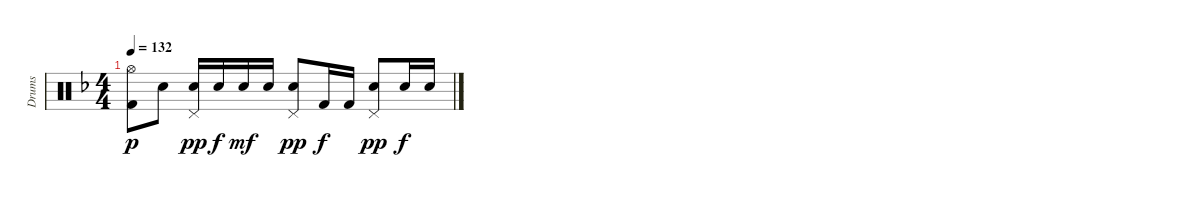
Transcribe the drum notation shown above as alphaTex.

\track ("Drums" "Drums") {instrument percussion}
\staff {score}
\articulation defaults
\ts (4 4)
\tempo 132
\clef neutral
\ks f
("Hi-Hat (open)" "Kick (hit) 2").8{dy p} "Electric Snare (hit)".8 ("Electric Snare (hit)" "Pedal Hi-Hat (hit)").16{dy pp} "Electric Snare (hit)".16{dy f} "Electric Snare (hit)".16{dy mf} "Electric Snare (hit)".16 ("Electric Snare (hit)" "Pedal Hi-Hat (hit)").8{dy pp} "Kick (hit) 2".16{dy f} "Kick (hit) 2".16 ("Electric Snare (hit)" "Pedal Hi-Hat (hit)").8{dy pp} "Electric Snare (hit)".16{dy f} "Electric Snare (hit)".16
